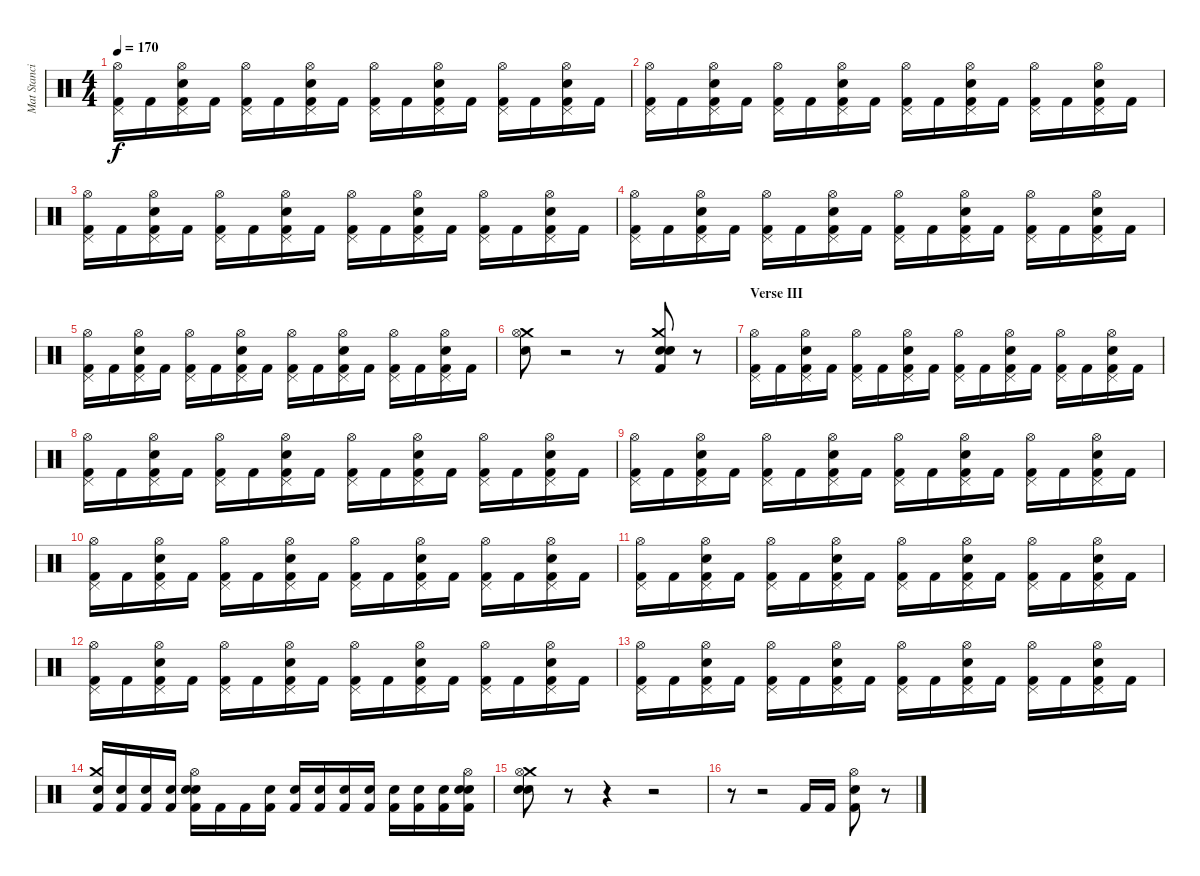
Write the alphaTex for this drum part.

\track ("Mat Stancioiu" "Mat Stanci") {instrument percussion}
\staff {score}
\articulation defaults
\ts (4 4)
\tempo 170
\clef neutral
\ks c
("Hi-Hat (open)" "Kick (hit) 2" "Pedal Hi-Hat (hit)").16{dy f} "Kick (hit) 2".16 ("Electric Snare (hit)" "Hi-Hat (open)" "Kick (hit) 2" "Pedal Hi-Hat (hit)").16 "Kick (hit) 2".16 ("Hi-Hat (open)" "Kick (hit) 2" "Pedal Hi-Hat (hit)").16 "Kick (hit) 2".16 ("Electric Snare (hit)" "Hi-Hat (open)" "Kick (hit) 2" "Pedal Hi-Hat (hit)").16 "Kick (hit) 2".16 ("Hi-Hat (open)" "Kick (hit) 2" "Pedal Hi-Hat (hit)").16 "Kick (hit) 2".16 ("Electric Snare (hit)" "Hi-Hat (open)" "Kick (hit) 2" "Pedal Hi-Hat (hit)").16 "Kick (hit) 2".16 ("Hi-Hat (open)" "Kick (hit) 2" "Pedal Hi-Hat (hit)").16 "Kick (hit) 2".16 ("Electric Snare (hit)" "Hi-Hat (open)" "Kick (hit) 2" "Pedal Hi-Hat (hit)").16 "Kick (hit) 2".16 |
("Hi-Hat (open)" "Kick (hit) 2" "Pedal Hi-Hat (hit)").16 "Kick (hit) 2".16 ("Electric Snare (hit)" "Hi-Hat (open)" "Kick (hit) 2" "Pedal Hi-Hat (hit)").16 "Kick (hit) 2".16 ("Hi-Hat (open)" "Kick (hit) 2" "Pedal Hi-Hat (hit)").16 "Kick (hit) 2".16 ("Electric Snare (hit)" "Hi-Hat (open)" "Kick (hit) 2" "Pedal Hi-Hat (hit)").16 "Kick (hit) 2".16 ("Hi-Hat (open)" "Kick (hit) 2" "Pedal Hi-Hat (hit)").16 "Kick (hit) 2".16 ("Electric Snare (hit)" "Hi-Hat (open)" "Kick (hit) 2" "Pedal Hi-Hat (hit)").16 "Kick (hit) 2".16 ("Hi-Hat (open)" "Kick (hit) 2" "Pedal Hi-Hat (hit)").16 "Kick (hit) 2".16 ("Electric Snare (hit)" "Hi-Hat (open)" "Kick (hit) 2" "Pedal Hi-Hat (hit)").16 "Kick (hit) 2".16 |
("Hi-Hat (open)" "Kick (hit) 2" "Pedal Hi-Hat (hit)").16 "Kick (hit) 2".16 ("Electric Snare (hit)" "Hi-Hat (open)" "Kick (hit) 2" "Pedal Hi-Hat (hit)").16 "Kick (hit) 2".16 ("Hi-Hat (open)" "Kick (hit) 2" "Pedal Hi-Hat (hit)").16 "Kick (hit) 2".16 ("Electric Snare (hit)" "Hi-Hat (open)" "Kick (hit) 2" "Pedal Hi-Hat (hit)").16 "Kick (hit) 2".16 ("Hi-Hat (open)" "Kick (hit) 2" "Pedal Hi-Hat (hit)").16 "Kick (hit) 2".16 ("Electric Snare (hit)" "Hi-Hat (open)" "Kick (hit) 2" "Pedal Hi-Hat (hit)").16 "Kick (hit) 2".16 ("Hi-Hat (open)" "Kick (hit) 2" "Pedal Hi-Hat (hit)").16 "Kick (hit) 2".16 ("Electric Snare (hit)" "Hi-Hat (open)" "Kick (hit) 2" "Pedal Hi-Hat (hit)").16 "Kick (hit) 2".16 |
("Hi-Hat (open)" "Kick (hit) 2" "Pedal Hi-Hat (hit)").16 "Kick (hit) 2".16 ("Electric Snare (hit)" "Hi-Hat (open)" "Kick (hit) 2" "Pedal Hi-Hat (hit)").16 "Kick (hit) 2".16 ("Hi-Hat (open)" "Kick (hit) 2" "Pedal Hi-Hat (hit)").16 "Kick (hit) 2".16 ("Electric Snare (hit)" "Hi-Hat (open)" "Kick (hit) 2" "Pedal Hi-Hat (hit)").16 "Kick (hit) 2".16 ("Hi-Hat (open)" "Kick (hit) 2" "Pedal Hi-Hat (hit)").16 "Kick (hit) 2".16 ("Electric Snare (hit)" "Hi-Hat (open)" "Kick (hit) 2" "Pedal Hi-Hat (hit)").16 "Kick (hit) 2".16 ("Hi-Hat (open)" "Kick (hit) 2" "Pedal Hi-Hat (hit)").16 "Kick (hit) 2".16 ("Electric Snare (hit)" "Hi-Hat (open)" "Kick (hit) 2" "Pedal Hi-Hat (hit)").16 "Kick (hit) 2".16 |
("Hi-Hat (open)" "Kick (hit) 2" "Pedal Hi-Hat (hit)").16 "Kick (hit) 2".16 ("Electric Snare (hit)" "Hi-Hat (open)" "Kick (hit) 2" "Pedal Hi-Hat (hit)").16 "Kick (hit) 2".16 ("Hi-Hat (open)" "Kick (hit) 2" "Pedal Hi-Hat (hit)").16 "Kick (hit) 2".16 ("Electric Snare (hit)" "Hi-Hat (open)" "Kick (hit) 2" "Pedal Hi-Hat (hit)").16 "Kick (hit) 2".16 ("Hi-Hat (open)" "Kick (hit) 2" "Pedal Hi-Hat (hit)").16 "Kick (hit) 2".16 ("Electric Snare (hit)" "Hi-Hat (open)" "Kick (hit) 2" "Pedal Hi-Hat (hit)").16 "Kick (hit) 2".16 ("Hi-Hat (open)" "Kick (hit) 2" "Pedal Hi-Hat (hit)").16 "Kick (hit) 2".16 ("Electric Snare (hit)" "Hi-Hat (open)" "Kick (hit) 2" "Pedal Hi-Hat (hit)").16 "Kick (hit) 2".16 |
("Crash medium (hit)" "Hi-Hat (open)" "Snare (hit)").8 r.2 r.8 ("Crash medium (hit)" "Electric Snare (hit)" "Kick (hit) 2" "Snare (hit)").8 r.8 |
\section ("" "Verse III")
("Hi-Hat (open)" "Kick (hit) 2" "Pedal Hi-Hat (hit)").16 "Kick (hit) 2".16 ("Electric Snare (hit)" "Hi-Hat (open)" "Kick (hit) 2" "Pedal Hi-Hat (hit)").16 "Kick (hit) 2".16 ("Hi-Hat (open)" "Kick (hit) 2" "Pedal Hi-Hat (hit)").16 "Kick (hit) 2".16 ("Electric Snare (hit)" "Hi-Hat (open)" "Kick (hit) 2" "Pedal Hi-Hat (hit)").16 "Kick (hit) 2".16 ("Hi-Hat (open)" "Kick (hit) 2" "Pedal Hi-Hat (hit)").16 "Kick (hit) 2".16 ("Electric Snare (hit)" "Hi-Hat (open)" "Kick (hit) 2" "Pedal Hi-Hat (hit)").16 "Kick (hit) 2".16 ("Hi-Hat (open)" "Kick (hit) 2" "Pedal Hi-Hat (hit)").16 "Kick (hit) 2".16 ("Electric Snare (hit)" "Hi-Hat (open)" "Kick (hit) 2" "Pedal Hi-Hat (hit)").16 "Kick (hit) 2".16 |
("Hi-Hat (open)" "Kick (hit) 2" "Pedal Hi-Hat (hit)").16 "Kick (hit) 2".16 ("Electric Snare (hit)" "Hi-Hat (open)" "Kick (hit) 2" "Pedal Hi-Hat (hit)").16 "Kick (hit) 2".16 ("Hi-Hat (open)" "Kick (hit) 2" "Pedal Hi-Hat (hit)").16 "Kick (hit) 2".16 ("Electric Snare (hit)" "Hi-Hat (open)" "Kick (hit) 2" "Pedal Hi-Hat (hit)").16 "Kick (hit) 2".16 ("Hi-Hat (open)" "Kick (hit) 2" "Pedal Hi-Hat (hit)").16 "Kick (hit) 2".16 ("Electric Snare (hit)" "Hi-Hat (open)" "Kick (hit) 2" "Pedal Hi-Hat (hit)").16 "Kick (hit) 2".16 ("Hi-Hat (open)" "Kick (hit) 2" "Pedal Hi-Hat (hit)").16 "Kick (hit) 2".16 ("Electric Snare (hit)" "Hi-Hat (open)" "Kick (hit) 2" "Pedal Hi-Hat (hit)").16 "Kick (hit) 2".16 |
("Hi-Hat (open)" "Kick (hit) 2" "Pedal Hi-Hat (hit)").16 "Kick (hit) 2".16 ("Electric Snare (hit)" "Hi-Hat (open)" "Kick (hit) 2" "Pedal Hi-Hat (hit)").16 "Kick (hit) 2".16 ("Hi-Hat (open)" "Kick (hit) 2" "Pedal Hi-Hat (hit)").16 "Kick (hit) 2".16 ("Electric Snare (hit)" "Hi-Hat (open)" "Kick (hit) 2" "Pedal Hi-Hat (hit)").16 "Kick (hit) 2".16 ("Hi-Hat (open)" "Kick (hit) 2" "Pedal Hi-Hat (hit)").16 "Kick (hit) 2".16 ("Electric Snare (hit)" "Hi-Hat (open)" "Kick (hit) 2" "Pedal Hi-Hat (hit)").16 "Kick (hit) 2".16 ("Hi-Hat (open)" "Kick (hit) 2" "Pedal Hi-Hat (hit)").16 "Kick (hit) 2".16 ("Electric Snare (hit)" "Hi-Hat (open)" "Kick (hit) 2" "Pedal Hi-Hat (hit)").16 "Kick (hit) 2".16 |
("Hi-Hat (open)" "Kick (hit) 2" "Pedal Hi-Hat (hit)").16 "Kick (hit) 2".16 ("Electric Snare (hit)" "Hi-Hat (open)" "Kick (hit) 2" "Pedal Hi-Hat (hit)").16 "Kick (hit) 2".16 ("Hi-Hat (open)" "Kick (hit) 2" "Pedal Hi-Hat (hit)").16 "Kick (hit) 2".16 ("Electric Snare (hit)" "Hi-Hat (open)" "Kick (hit) 2" "Pedal Hi-Hat (hit)").16 "Kick (hit) 2".16 ("Hi-Hat (open)" "Kick (hit) 2" "Pedal Hi-Hat (hit)").16 "Kick (hit) 2".16 ("Electric Snare (hit)" "Hi-Hat (open)" "Kick (hit) 2" "Pedal Hi-Hat (hit)").16 "Kick (hit) 2".16 ("Hi-Hat (open)" "Kick (hit) 2" "Pedal Hi-Hat (hit)").16 "Kick (hit) 2".16 ("Electric Snare (hit)" "Hi-Hat (open)" "Kick (hit) 2" "Pedal Hi-Hat (hit)").16 "Kick (hit) 2".16 |
("Hi-Hat (open)" "Kick (hit) 2" "Pedal Hi-Hat (hit)").16 "Kick (hit) 2".16 ("Electric Snare (hit)" "Hi-Hat (open)" "Kick (hit) 2" "Pedal Hi-Hat (hit)").16 "Kick (hit) 2".16 ("Hi-Hat (open)" "Kick (hit) 2" "Pedal Hi-Hat (hit)").16 "Kick (hit) 2".16 ("Electric Snare (hit)" "Hi-Hat (open)" "Kick (hit) 2" "Pedal Hi-Hat (hit)").16 "Kick (hit) 2".16 ("Hi-Hat (open)" "Kick (hit) 2" "Pedal Hi-Hat (hit)").16 "Kick (hit) 2".16 ("Electric Snare (hit)" "Hi-Hat (open)" "Kick (hit) 2" "Pedal Hi-Hat (hit)").16 "Kick (hit) 2".16 ("Hi-Hat (open)" "Kick (hit) 2" "Pedal Hi-Hat (hit)").16 "Kick (hit) 2".16 ("Electric Snare (hit)" "Hi-Hat (open)" "Kick (hit) 2" "Pedal Hi-Hat (hit)").16 "Kick (hit) 2".16 |
("Hi-Hat (open)" "Kick (hit) 2" "Pedal Hi-Hat (hit)").16 "Kick (hit) 2".16 ("Electric Snare (hit)" "Hi-Hat (open)" "Kick (hit) 2" "Pedal Hi-Hat (hit)").16 "Kick (hit) 2".16 ("Hi-Hat (open)" "Kick (hit) 2" "Pedal Hi-Hat (hit)").16 "Kick (hit) 2".16 ("Electric Snare (hit)" "Hi-Hat (open)" "Kick (hit) 2" "Pedal Hi-Hat (hit)").16 "Kick (hit) 2".16 ("Hi-Hat (open)" "Kick (hit) 2" "Pedal Hi-Hat (hit)").16 "Kick (hit) 2".16 ("Electric Snare (hit)" "Hi-Hat (open)" "Kick (hit) 2" "Pedal Hi-Hat (hit)").16 "Kick (hit) 2".16 ("Hi-Hat (open)" "Kick (hit) 2" "Pedal Hi-Hat (hit)").16 "Kick (hit) 2".16 ("Electric Snare (hit)" "Hi-Hat (open)" "Kick (hit) 2" "Pedal Hi-Hat (hit)").16 "Kick (hit) 2".16 |
("Hi-Hat (open)" "Kick (hit) 2" "Pedal Hi-Hat (hit)").16 "Kick (hit) 2".16 ("Electric Snare (hit)" "Hi-Hat (open)" "Kick (hit) 2" "Pedal Hi-Hat (hit)").16 "Kick (hit) 2".16 ("Hi-Hat (open)" "Kick (hit) 2" "Pedal Hi-Hat (hit)").16 "Kick (hit) 2".16 ("Electric Snare (hit)" "Hi-Hat (open)" "Kick (hit) 2" "Pedal Hi-Hat (hit)").16 "Kick (hit) 2".16 ("Hi-Hat (open)" "Kick (hit) 2" "Pedal Hi-Hat (hit)").16 "Kick (hit) 2".16 ("Electric Snare (hit)" "Hi-Hat (open)" "Kick (hit) 2" "Pedal Hi-Hat (hit)").16 "Kick (hit) 2".16 ("Hi-Hat (open)" "Kick (hit) 2" "Pedal Hi-Hat (hit)").16 "Kick (hit) 2".16 ("Electric Snare (hit)" "Hi-Hat (open)" "Kick (hit) 2" "Pedal Hi-Hat (hit)").16 "Kick (hit) 2".16 |
("Kick (hit) 2" "Crash medium (hit)" "Snare (hit)").16 ("Electric Snare (hit)" "Kick (hit) 2").16 ("Electric Snare (hit)" "Kick (hit) 2").16 ("Electric Snare (hit)" "Kick (hit) 2").16 ("Electric Snare (hit)" "Kick (hit) 2" "Hi-Hat (open)" "Snare (hit)").16 "Kick (hit) 2".16 "Kick (hit) 2".16 ("Electric Snare (hit)" "Kick (hit) 2").16 ("Electric Snare (hit)" "Kick (hit) 2").16 ("Electric Snare (hit)" "Kick (hit) 2").16 ("Electric Snare (hit)" "Kick (hit) 2").16 ("Electric Snare (hit)" "Kick (hit) 2").16 ("Electric Snare (hit)" "Kick (hit) 2").16 ("Electric Snare (hit)" "Kick (hit) 2").16 ("Electric Snare (hit)" "Kick (hit) 2").16 ("Electric Snare (hit)" "Kick (hit) 2" "Hi-Hat (open)" "Snare (hit)").16 |
("Crash medium (hit)" "Hi-Hat (open)" "Snare (hit)" "Electric Snare (hit)").8 r.8 r.4 r.2 |
r.8 r.2 "Kick (hit) 2".16 "Kick (hit) 2".16 ("Electric Snare (hit)" "Hi-Hat (open)" "Kick (hit) 2").8 r.8
